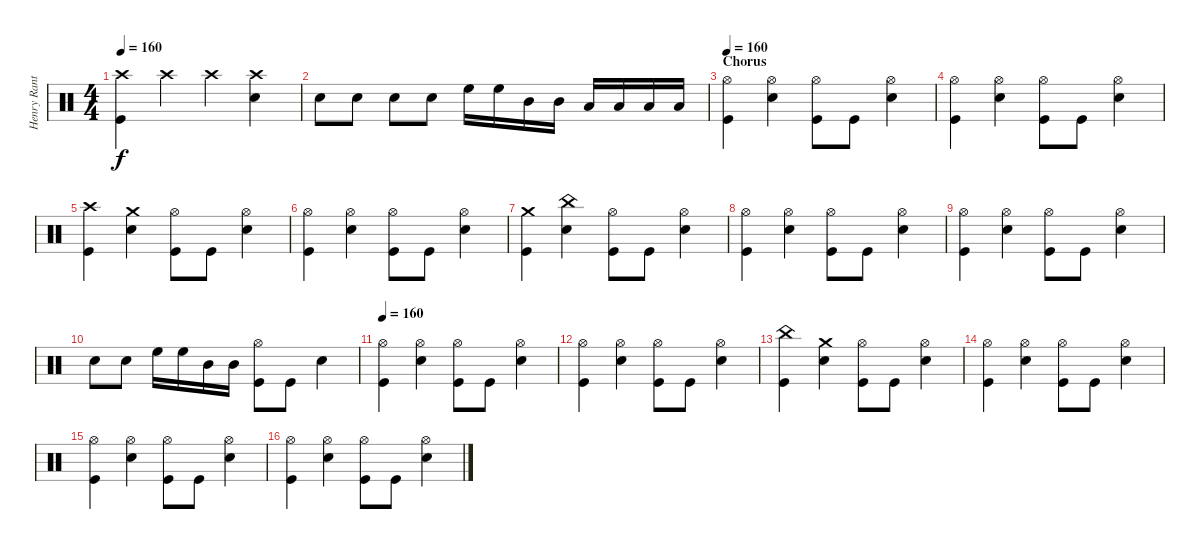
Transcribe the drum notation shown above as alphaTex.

\track ("Henry Ranta" "Henry Rant") {instrument percussion}
\staff {score}
\articulation defaults
\ts (4 4)
\tempo 160
\clef neutral
\ks c
("Crash high (hit)" "Kick (hit)").4{dy f} "Crash high (hit)".4 "Crash high (hit)".4 ("Crash high (hit)" "Snare (hit) 2").4 |
"Snare (hit) 2".8 "Snare (hit) 2".8 "Snare (hit) 2".8 "Snare (hit) 2".8 "High Floor Tom (hit)".16 "High Floor Tom (hit)".16 "Mid Tom (hit)".16 "Mid Tom (hit)".16 "Low Tom (hit)".16 "Low Tom (hit)".16 "Low Floor Tom (hit)".16 "Low Floor Tom (hit)".16 |
\section ("" "Chorus")
\tempo 160
("Hi-Hat (open)" "Kick (hit)").4 ("Hi-Hat (open)" "Snare (hit) 2").4 ("Hi-Hat (open)" "Kick (hit)").8 "Kick (hit)".8 ("Hi-Hat (open)" "Snare (hit) 2").4 |
("Hi-Hat (open)" "Kick (hit)").4 ("Hi-Hat (open)" "Snare (hit) 2").4 ("Hi-Hat (open)" "Kick (hit)").8 "Kick (hit)".8 ("Hi-Hat (open)" "Snare (hit) 2").4 |
("Crash high (hit)" "Kick (hit)").4 ("Crash medium (hit)" "Snare (hit) 2").4 ("Hi-Hat (open)" "Kick (hit)").8 "Kick (hit)".8 ("Hi-Hat (open)" "Snare (hit) 2").4 |
("Hi-Hat (open)" "Kick (hit)").4 ("Hi-Hat (open)" "Snare (hit) 2").4 ("Hi-Hat (open)" "Kick (hit)").8 "Kick (hit)".8 ("Hi-Hat (open)" "Snare (hit) 2").4 |
("Crash medium (hit)" "Kick (hit)").4 ("China (hit)" "Snare (hit) 2").4 ("Hi-Hat (open)" "Kick (hit)").8 "Kick (hit)".8 ("Hi-Hat (open)" "Snare (hit) 2").4 |
("Hi-Hat (open)" "Kick (hit)").4 ("Hi-Hat (open)" "Snare (hit) 2").4 ("Hi-Hat (open)" "Kick (hit)").8 "Kick (hit)".8 ("Hi-Hat (open)" "Snare (hit) 2").4 |
("Hi-Hat (open)" "Kick (hit)").4 ("Hi-Hat (open)" "Snare (hit) 2").4 ("Hi-Hat (open)" "Kick (hit)").8 "Kick (hit)".8 ("Hi-Hat (open)" "Snare (hit) 2").4 |
"Snare (hit) 2".8 "Snare (hit) 2".8 "High Floor Tom (hit)".16 "High Floor Tom (hit)".16 "Mid Tom (hit)".16 "Mid Tom (hit)".16 ("Hi-Hat (open)" "Kick (hit)").8 "Kick (hit)".8 "Snare (hit) 2".4 |
\tempo 160
("Hi-Hat (open)" "Kick (hit)").4 ("Hi-Hat (open)" "Snare (hit) 2").4 ("Hi-Hat (open)" "Kick (hit)").8 "Kick (hit)".8 ("Hi-Hat (open)" "Snare (hit) 2").4 |
("Hi-Hat (open)" "Kick (hit)").4 ("Hi-Hat (open)" "Snare (hit) 2").4 ("Hi-Hat (open)" "Kick (hit)").8 "Kick (hit)".8 ("Hi-Hat (open)" "Snare (hit) 2").4 |
("China (hit)" "Kick (hit)").4 ("Crash medium (hit)" "Snare (hit) 2").4 ("Hi-Hat (open)" "Kick (hit)").8 "Kick (hit)".8 ("Hi-Hat (open)" "Snare (hit) 2").4 |
("Hi-Hat (open)" "Kick (hit)").4 ("Hi-Hat (open)" "Snare (hit) 2").4 ("Hi-Hat (open)" "Kick (hit)").8 "Kick (hit)".8 ("Hi-Hat (open)" "Snare (hit) 2").4 |
("Hi-Hat (open)" "Kick (hit)").4 ("Hi-Hat (open)" "Snare (hit) 2").4 ("Hi-Hat (open)" "Kick (hit)").8 "Kick (hit)".8 ("Hi-Hat (open)" "Snare (hit) 2").4 |
("Hi-Hat (open)" "Kick (hit)").4 ("Hi-Hat (open)" "Snare (hit) 2").4 ("Hi-Hat (open)" "Kick (hit)").8 "Kick (hit)".8 ("Hi-Hat (open)" "Snare (hit) 2").4
